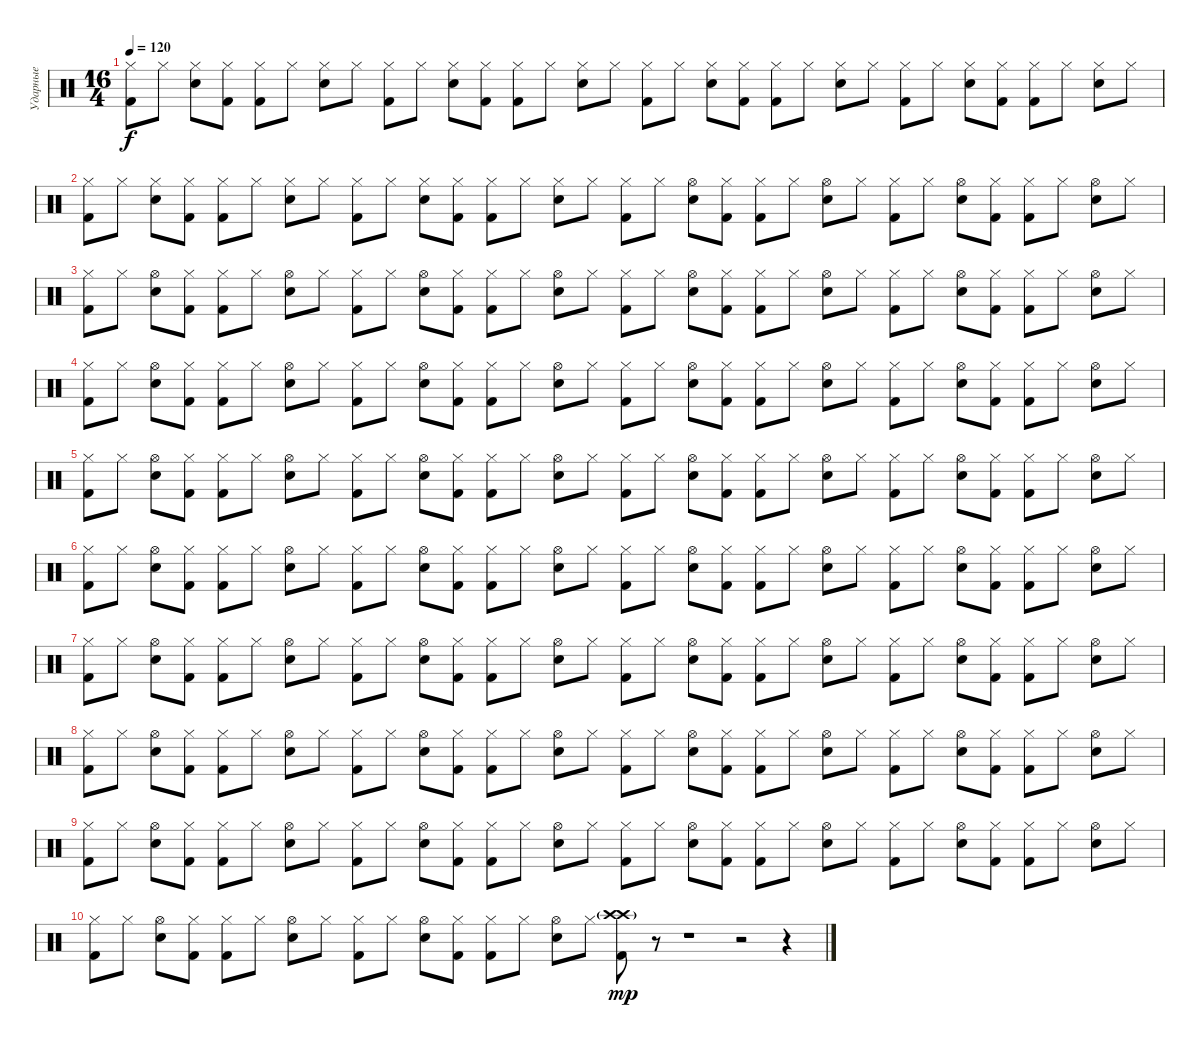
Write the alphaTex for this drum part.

\track ("Ударные" "Ударные") {instrument percussion}
\staff {score}
\articulation defaults
\ts (16 4)
\tempo 120
\clef neutral
\ks c
("Hi-Hat (closed)" "Kick (hit) 2").8{dy f} "Hi-Hat (closed)".8 ("Hi-Hat (closed)" "Electric Snare (hit)").8 ("Hi-Hat (closed)" "Kick (hit) 2").8 ("Hi-Hat (closed)" "Kick (hit) 2").8 "Hi-Hat (closed)".8 ("Hi-Hat (closed)" "Electric Snare (hit)").8 "Hi-Hat (closed)".8 ("Hi-Hat (closed)" "Kick (hit) 2").8 "Hi-Hat (closed)".8 ("Hi-Hat (closed)" "Electric Snare (hit)").8 ("Hi-Hat (closed)" "Kick (hit) 2").8 ("Hi-Hat (closed)" "Kick (hit) 2").8 "Hi-Hat (closed)".8 ("Hi-Hat (closed)" "Electric Snare (hit)").8 "Hi-Hat (closed)".8 ("Hi-Hat (closed)" "Kick (hit) 2").8 "Hi-Hat (closed)".8 ("Hi-Hat (closed)" "Electric Snare (hit)").8 ("Hi-Hat (closed)" "Kick (hit) 2").8 ("Hi-Hat (closed)" "Kick (hit) 2").8 "Hi-Hat (closed)".8 ("Hi-Hat (closed)" "Electric Snare (hit)").8 "Hi-Hat (closed)".8 ("Hi-Hat (closed)" "Kick (hit) 2").8 "Hi-Hat (closed)".8 ("Hi-Hat (closed)" "Electric Snare (hit)").8 ("Hi-Hat (closed)" "Kick (hit) 2").8 ("Hi-Hat (closed)" "Kick (hit) 2").8 "Hi-Hat (closed)".8 ("Hi-Hat (closed)" "Electric Snare (hit)").8 "Hi-Hat (closed)".8 |
("Hi-Hat (closed)" "Kick (hit) 2").8 "Hi-Hat (closed)".8 ("Hi-Hat (closed)" "Electric Snare (hit)").8 ("Hi-Hat (closed)" "Kick (hit) 2").8 ("Hi-Hat (closed)" "Kick (hit) 2").8 "Hi-Hat (closed)".8 ("Hi-Hat (closed)" "Electric Snare (hit)").8 "Hi-Hat (closed)".8 ("Hi-Hat (closed)" "Kick (hit) 2").8 "Hi-Hat (closed)".8 ("Hi-Hat (closed)" "Electric Snare (hit)").8 ("Hi-Hat (closed)" "Kick (hit) 2").8 ("Hi-Hat (closed)" "Kick (hit) 2").8 "Hi-Hat (closed)".8 ("Hi-Hat (closed)" "Electric Snare (hit)").8 "Hi-Hat (closed)".8 ("Hi-Hat (closed)" "Kick (hit) 2").8 "Hi-Hat (closed)".8 ("Hi-Hat (open)" "Electric Snare (hit)").8 ("Hi-Hat (closed)" "Kick (hit) 2").8 ("Hi-Hat (closed)" "Kick (hit) 2").8 "Hi-Hat (closed)".8 ("Hi-Hat (open)" "Electric Snare (hit)").8 "Hi-Hat (closed)".8 ("Hi-Hat (closed)" "Kick (hit) 2").8 "Hi-Hat (closed)".8 ("Hi-Hat (open)" "Electric Snare (hit)").8 ("Hi-Hat (closed)" "Kick (hit) 2").8 ("Hi-Hat (closed)" "Kick (hit) 2").8 "Hi-Hat (closed)".8 ("Hi-Hat (open)" "Electric Snare (hit)").8 "Hi-Hat (closed)".8 |
("Hi-Hat (closed)" "Kick (hit) 2").8 "Hi-Hat (closed)".8 ("Hi-Hat (open)" "Electric Snare (hit)").8 ("Hi-Hat (closed)" "Kick (hit) 2").8 ("Hi-Hat (closed)" "Kick (hit) 2").8 "Hi-Hat (closed)".8 ("Hi-Hat (open)" "Electric Snare (hit)").8 "Hi-Hat (closed)".8 ("Hi-Hat (closed)" "Kick (hit) 2").8 "Hi-Hat (closed)".8 ("Hi-Hat (open)" "Electric Snare (hit)").8 ("Hi-Hat (closed)" "Kick (hit) 2").8 ("Hi-Hat (closed)" "Kick (hit) 2").8 "Hi-Hat (closed)".8 ("Hi-Hat (open)" "Electric Snare (hit)").8 "Hi-Hat (closed)".8 ("Hi-Hat (closed)" "Kick (hit) 2").8 "Hi-Hat (closed)".8 ("Hi-Hat (open)" "Electric Snare (hit)").8 ("Hi-Hat (closed)" "Kick (hit) 2").8 ("Hi-Hat (closed)" "Kick (hit) 2").8 "Hi-Hat (closed)".8 ("Hi-Hat (open)" "Electric Snare (hit)").8 "Hi-Hat (closed)".8 ("Hi-Hat (closed)" "Kick (hit) 2").8 "Hi-Hat (closed)".8 ("Hi-Hat (open)" "Electric Snare (hit)").8 ("Hi-Hat (closed)" "Kick (hit) 2").8 ("Hi-Hat (closed)" "Kick (hit) 2").8 "Hi-Hat (closed)".8 ("Hi-Hat (open)" "Electric Snare (hit)").8 "Hi-Hat (closed)".8 |
("Hi-Hat (closed)" "Kick (hit) 2").8 "Hi-Hat (closed)".8 ("Hi-Hat (open)" "Electric Snare (hit)").8 ("Hi-Hat (closed)" "Kick (hit) 2").8 ("Hi-Hat (closed)" "Kick (hit) 2").8 "Hi-Hat (closed)".8 ("Hi-Hat (open)" "Electric Snare (hit)").8 "Hi-Hat (closed)".8 ("Hi-Hat (closed)" "Kick (hit) 2").8 "Hi-Hat (closed)".8 ("Hi-Hat (open)" "Electric Snare (hit)").8 ("Hi-Hat (closed)" "Kick (hit) 2").8 ("Hi-Hat (closed)" "Kick (hit) 2").8 "Hi-Hat (closed)".8 ("Hi-Hat (open)" "Electric Snare (hit)").8 "Hi-Hat (closed)".8 ("Hi-Hat (closed)" "Kick (hit) 2").8 "Hi-Hat (closed)".8 ("Hi-Hat (open)" "Electric Snare (hit)").8 ("Hi-Hat (closed)" "Kick (hit) 2").8 ("Hi-Hat (closed)" "Kick (hit) 2").8 "Hi-Hat (closed)".8 ("Hi-Hat (open)" "Electric Snare (hit)").8 "Hi-Hat (closed)".8 ("Hi-Hat (closed)" "Kick (hit) 2").8 "Hi-Hat (closed)".8 ("Hi-Hat (open)" "Electric Snare (hit)").8 ("Hi-Hat (closed)" "Kick (hit) 2").8 ("Hi-Hat (closed)" "Kick (hit) 2").8 "Hi-Hat (closed)".8 ("Hi-Hat (open)" "Electric Snare (hit)").8 "Hi-Hat (closed)".8 |
("Hi-Hat (closed)" "Kick (hit) 2").8 "Hi-Hat (closed)".8 ("Hi-Hat (open)" "Electric Snare (hit)").8 ("Hi-Hat (closed)" "Kick (hit) 2").8 ("Hi-Hat (closed)" "Kick (hit) 2").8 "Hi-Hat (closed)".8 ("Hi-Hat (open)" "Electric Snare (hit)").8 "Hi-Hat (closed)".8 ("Hi-Hat (closed)" "Kick (hit) 2").8 "Hi-Hat (closed)".8 ("Hi-Hat (open)" "Electric Snare (hit)").8 ("Hi-Hat (closed)" "Kick (hit) 2").8 ("Hi-Hat (closed)" "Kick (hit) 2").8 "Hi-Hat (closed)".8 ("Hi-Hat (open)" "Electric Snare (hit)").8 "Hi-Hat (closed)".8 ("Hi-Hat (closed)" "Kick (hit) 2").8 "Hi-Hat (closed)".8 ("Hi-Hat (open)" "Electric Snare (hit)").8 ("Hi-Hat (closed)" "Kick (hit) 2").8 ("Hi-Hat (closed)" "Kick (hit) 2").8 "Hi-Hat (closed)".8 ("Hi-Hat (open)" "Electric Snare (hit)").8 "Hi-Hat (closed)".8 ("Hi-Hat (closed)" "Kick (hit) 2").8 "Hi-Hat (closed)".8 ("Hi-Hat (open)" "Electric Snare (hit)").8 ("Hi-Hat (closed)" "Kick (hit) 2").8 ("Hi-Hat (closed)" "Kick (hit) 2").8 "Hi-Hat (closed)".8 ("Hi-Hat (open)" "Electric Snare (hit)").8 "Hi-Hat (closed)".8 |
("Hi-Hat (closed)" "Kick (hit) 2").8 "Hi-Hat (closed)".8 ("Hi-Hat (open)" "Electric Snare (hit)").8 ("Hi-Hat (closed)" "Kick (hit) 2").8 ("Hi-Hat (closed)" "Kick (hit) 2").8 "Hi-Hat (closed)".8 ("Hi-Hat (open)" "Electric Snare (hit)").8 "Hi-Hat (closed)".8 ("Hi-Hat (closed)" "Kick (hit) 2").8 "Hi-Hat (closed)".8 ("Hi-Hat (open)" "Electric Snare (hit)").8 ("Hi-Hat (closed)" "Kick (hit) 2").8 ("Hi-Hat (closed)" "Kick (hit) 2").8 "Hi-Hat (closed)".8 ("Hi-Hat (open)" "Electric Snare (hit)").8 "Hi-Hat (closed)".8 ("Hi-Hat (closed)" "Kick (hit) 2").8 "Hi-Hat (closed)".8 ("Hi-Hat (open)" "Electric Snare (hit)").8 ("Hi-Hat (closed)" "Kick (hit) 2").8 ("Hi-Hat (closed)" "Kick (hit) 2").8 "Hi-Hat (closed)".8 ("Hi-Hat (open)" "Electric Snare (hit)").8 "Hi-Hat (closed)".8 ("Hi-Hat (closed)" "Kick (hit) 2").8 "Hi-Hat (closed)".8 ("Hi-Hat (open)" "Electric Snare (hit)").8 ("Hi-Hat (closed)" "Kick (hit) 2").8 ("Hi-Hat (closed)" "Kick (hit) 2").8 "Hi-Hat (closed)".8 ("Hi-Hat (open)" "Electric Snare (hit)").8 "Hi-Hat (closed)".8 |
("Hi-Hat (closed)" "Kick (hit) 2").8 "Hi-Hat (closed)".8 ("Hi-Hat (open)" "Electric Snare (hit)").8 ("Hi-Hat (closed)" "Kick (hit) 2").8 ("Hi-Hat (closed)" "Kick (hit) 2").8 "Hi-Hat (closed)".8 ("Hi-Hat (open)" "Electric Snare (hit)").8 "Hi-Hat (closed)".8 ("Hi-Hat (closed)" "Kick (hit) 2").8 "Hi-Hat (closed)".8 ("Hi-Hat (open)" "Electric Snare (hit)").8 ("Hi-Hat (closed)" "Kick (hit) 2").8 ("Hi-Hat (closed)" "Kick (hit) 2").8 "Hi-Hat (closed)".8 ("Hi-Hat (open)" "Electric Snare (hit)").8 "Hi-Hat (closed)".8 ("Hi-Hat (closed)" "Kick (hit) 2").8 "Hi-Hat (closed)".8 ("Hi-Hat (open)" "Electric Snare (hit)").8 ("Hi-Hat (closed)" "Kick (hit) 2").8 ("Hi-Hat (closed)" "Kick (hit) 2").8 "Hi-Hat (closed)".8 ("Hi-Hat (open)" "Electric Snare (hit)").8 "Hi-Hat (closed)".8 ("Hi-Hat (closed)" "Kick (hit) 2").8 "Hi-Hat (closed)".8 ("Hi-Hat (open)" "Electric Snare (hit)").8 ("Hi-Hat (closed)" "Kick (hit) 2").8 ("Hi-Hat (closed)" "Kick (hit) 2").8 "Hi-Hat (closed)".8 ("Hi-Hat (open)" "Electric Snare (hit)").8 "Hi-Hat (closed)".8 |
("Hi-Hat (closed)" "Kick (hit) 2").8 "Hi-Hat (closed)".8 ("Hi-Hat (open)" "Electric Snare (hit)").8 ("Hi-Hat (closed)" "Kick (hit) 2").8 ("Hi-Hat (closed)" "Kick (hit) 2").8 "Hi-Hat (closed)".8 ("Hi-Hat (open)" "Electric Snare (hit)").8 "Hi-Hat (closed)".8 ("Hi-Hat (closed)" "Kick (hit) 2").8 "Hi-Hat (closed)".8 ("Hi-Hat (open)" "Electric Snare (hit)").8 ("Hi-Hat (closed)" "Kick (hit) 2").8 ("Hi-Hat (closed)" "Kick (hit) 2").8 "Hi-Hat (closed)".8 ("Hi-Hat (open)" "Electric Snare (hit)").8 "Hi-Hat (closed)".8 ("Hi-Hat (closed)" "Kick (hit) 2").8 "Hi-Hat (closed)".8 ("Hi-Hat (open)" "Electric Snare (hit)").8 ("Hi-Hat (closed)" "Kick (hit) 2").8 ("Hi-Hat (closed)" "Kick (hit) 2").8 "Hi-Hat (closed)".8 ("Hi-Hat (open)" "Electric Snare (hit)").8 "Hi-Hat (closed)".8 ("Hi-Hat (closed)" "Kick (hit) 2").8 "Hi-Hat (closed)".8 ("Hi-Hat (open)" "Electric Snare (hit)").8 ("Hi-Hat (closed)" "Kick (hit) 2").8 ("Hi-Hat (closed)" "Kick (hit) 2").8 "Hi-Hat (closed)".8 ("Hi-Hat (open)" "Electric Snare (hit)").8 "Hi-Hat (closed)".8 |
("Hi-Hat (closed)" "Kick (hit) 2").8 "Hi-Hat (closed)".8 ("Hi-Hat (open)" "Electric Snare (hit)").8 ("Hi-Hat (closed)" "Kick (hit) 2").8 ("Hi-Hat (closed)" "Kick (hit) 2").8 "Hi-Hat (closed)".8 ("Hi-Hat (open)" "Electric Snare (hit)").8 "Hi-Hat (closed)".8 ("Hi-Hat (closed)" "Kick (hit) 2").8 "Hi-Hat (closed)".8 ("Hi-Hat (open)" "Electric Snare (hit)").8 ("Hi-Hat (closed)" "Kick (hit) 2").8 ("Hi-Hat (closed)" "Kick (hit) 2").8 "Hi-Hat (closed)".8 ("Hi-Hat (open)" "Electric Snare (hit)").8 "Hi-Hat (closed)".8 ("Hi-Hat (closed)" "Kick (hit) 2").8 "Hi-Hat (closed)".8 ("Hi-Hat (open)" "Electric Snare (hit)").8 ("Hi-Hat (closed)" "Kick (hit) 2").8 ("Hi-Hat (closed)" "Kick (hit) 2").8 "Hi-Hat (closed)".8 ("Hi-Hat (open)" "Electric Snare (hit)").8 "Hi-Hat (closed)".8 ("Hi-Hat (closed)" "Kick (hit) 2").8 "Hi-Hat (closed)".8 ("Hi-Hat (open)" "Electric Snare (hit)").8 ("Hi-Hat (closed)" "Kick (hit) 2").8 ("Hi-Hat (closed)" "Kick (hit) 2").8 "Hi-Hat (closed)".8 ("Hi-Hat (open)" "Electric Snare (hit)").8 "Hi-Hat (closed)".8 |
("Hi-Hat (closed)" "Kick (hit) 2").8 "Hi-Hat (closed)".8 ("Hi-Hat (open)" "Electric Snare (hit)").8 ("Hi-Hat (closed)" "Kick (hit) 2").8 ("Hi-Hat (closed)" "Kick (hit) 2").8 "Hi-Hat (closed)".8 ("Hi-Hat (open)" "Electric Snare (hit)").8 "Hi-Hat (closed)".8 ("Hi-Hat (closed)" "Kick (hit) 2").8 "Hi-Hat (closed)".8 ("Hi-Hat (open)" "Electric Snare (hit)").8 ("Hi-Hat (closed)" "Kick (hit) 2").8 ("Hi-Hat (closed)" "Kick (hit) 2").8 "Hi-Hat (closed)".8 ("Hi-Hat (open)" "Electric Snare (hit)").8 "Hi-Hat (closed)".8 ("Crash high (hit)"{g} "Crash high (hit)"{g} "Kick (hit) 2").8{dy mp} r.8 r.1 r.2 r.4
